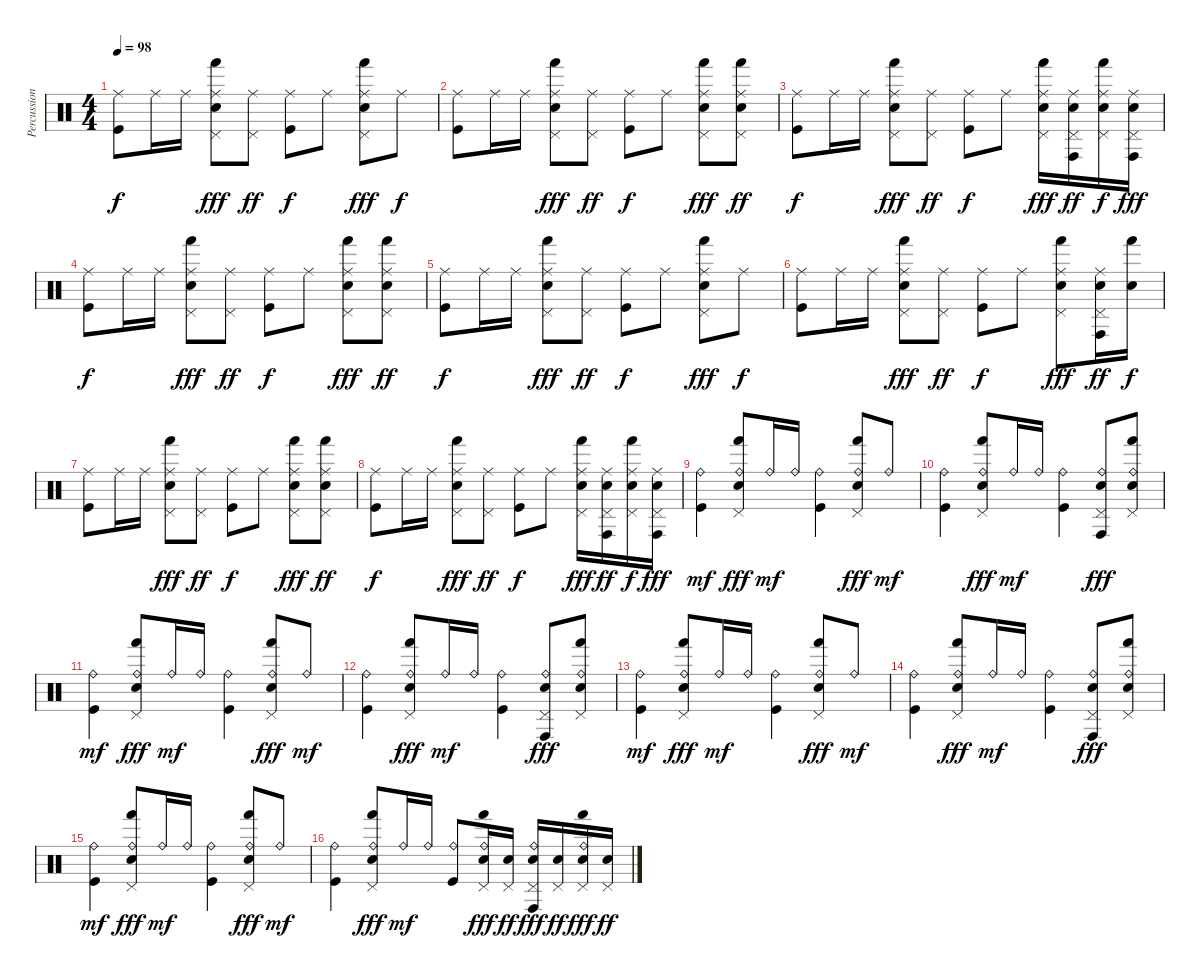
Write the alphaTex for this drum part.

\track ("Percussion" "Percussion") {instrument percussion}
\staff {score}
\articulation defaults
\ts (4 4)
\tempo 98
\clef neutral
\ks c
("Ride (middle)" "Kick (hit)").8{dy f} "Ride (middle)".16 "Ride (middle)".16 ("Ride (middle)" "Pedal Hi-Hat (hit)" "Electric Snare (hit)" "Hand (hit)").8{dy fff} ("Ride (middle)" "Pedal Hi-Hat (hit)").8{dy ff} ("Ride (middle)" "Kick (hit)").8{dy f} "Ride (middle)".8 ("Ride (middle)" "Pedal Hi-Hat (hit)" "Electric Snare (hit)" "Hand (hit)").8{dy fff} "Ride (middle)".8{dy f} |
("Ride (middle)" "Kick (hit)").8 "Ride (middle)".16 "Ride (middle)".16 ("Ride (middle)" "Pedal Hi-Hat (hit)" "Electric Snare (hit)" "Hand (hit)").8{dy fff} ("Ride (middle)" "Pedal Hi-Hat (hit)").8{dy ff} ("Ride (middle)" "Kick (hit)").8{dy f} "Ride (middle)".8 ("Ride (middle)" "Pedal Hi-Hat (hit)" "Electric Snare (hit)" "Hand (hit)").8{dy fff} ("Ride (middle)" "Pedal Hi-Hat (hit)" "Electric Snare (hit)" "Hand (hit)").8{dy ff} |
("Ride (middle)" "Kick (hit)").8{dy f} "Ride (middle)".16 "Ride (middle)".16 ("Ride (middle)" "Pedal Hi-Hat (hit)" "Electric Snare (hit)" "Hand (hit)").8{dy fff} ("Ride (middle)" "Pedal Hi-Hat (hit)").8{dy ff} ("Ride (middle)" "Kick (hit)").8{dy f} "Ride (middle)".8 ("Ride (middle)" "Pedal Hi-Hat (hit)" "Electric Snare (hit)" "Hand (hit)").16{dy fff} ("Ride (middle)" "Pedal Hi-Hat (hit)" "Electric Snare (hit)" "Conga high (hit)").16{dy ff} ("Ride (middle)" "Pedal Hi-Hat (hit)" "Electric Snare (hit)" "Hand (hit)").16{dy f} ("Ride (middle)" "Pedal Hi-Hat (hit)" "Electric Snare (hit)" "Conga high (hit)").16{dy fff} |
("Ride (middle)" "Kick (hit)").8{dy f} "Ride (middle)".16 "Ride (middle)".16 ("Ride (middle)" "Pedal Hi-Hat (hit)" "Electric Snare (hit)" "Hand (hit)").8{dy fff} ("Ride (middle)" "Pedal Hi-Hat (hit)").8{dy ff} ("Ride (middle)" "Kick (hit)").8{dy f} "Ride (middle)".8 ("Ride (middle)" "Pedal Hi-Hat (hit)" "Electric Snare (hit)" "Hand (hit)").8{dy fff} ("Ride (middle)" "Pedal Hi-Hat (hit)" "Electric Snare (hit)" "Hand (hit)").8{dy ff} |
("Ride (middle)" "Kick (hit)").8{dy f} "Ride (middle)".16 "Ride (middle)".16 ("Ride (middle)" "Pedal Hi-Hat (hit)" "Electric Snare (hit)" "Hand (hit)").8{dy fff} ("Ride (middle)" "Pedal Hi-Hat (hit)").8{dy ff} ("Ride (middle)" "Kick (hit)").8{dy f} "Ride (middle)".8 ("Ride (middle)" "Pedal Hi-Hat (hit)" "Electric Snare (hit)" "Hand (hit)").8{dy fff} "Ride (middle)".8{dy f} |
("Ride (middle)" "Kick (hit)").8 "Ride (middle)".16 "Ride (middle)".16 ("Ride (middle)" "Pedal Hi-Hat (hit)" "Electric Snare (hit)" "Hand (hit)").8{dy fff} ("Ride (middle)" "Pedal Hi-Hat (hit)").8{dy ff} ("Ride (middle)" "Kick (hit)").8{dy f} "Ride (middle)".8 ("Ride (middle)" "Pedal Hi-Hat (hit)" "Electric Snare (hit)" "Hand (hit)").8{dy fff} ("Ride (middle)" "Pedal Hi-Hat (hit)" "Electric Snare (hit)" "Conga high (hit)").16{dy ff} ("Electric Snare (hit)" "Hand (hit)").16{dy f} |
("Ride (middle)" "Kick (hit)").8 "Ride (middle)".16 "Ride (middle)".16 ("Ride (middle)" "Pedal Hi-Hat (hit)" "Electric Snare (hit)" "Hand (hit)").8{dy fff} ("Ride (middle)" "Pedal Hi-Hat (hit)").8{dy ff} ("Ride (middle)" "Kick (hit)").8{dy f} "Ride (middle)".8 ("Ride (middle)" "Pedal Hi-Hat (hit)" "Electric Snare (hit)" "Hand (hit)").8{dy fff} ("Ride (middle)" "Pedal Hi-Hat (hit)" "Electric Snare (hit)" "Hand (hit)").8{dy ff} |
("Ride (middle)" "Kick (hit)").8{dy f} "Ride (middle)".16 "Ride (middle)".16 ("Ride (middle)" "Pedal Hi-Hat (hit)" "Electric Snare (hit)" "Hand (hit)").8{dy fff} ("Ride (middle)" "Pedal Hi-Hat (hit)").8{dy ff} ("Ride (middle)" "Kick (hit)").8{dy f} "Ride (middle)".8 ("Ride (middle)" "Pedal Hi-Hat (hit)" "Electric Snare (hit)" "Hand (hit)").16{dy fff} ("Ride (middle)" "Pedal Hi-Hat (hit)" "Electric Snare (hit)" "Conga high (hit)").16{dy ff} ("Ride (middle)" "Pedal Hi-Hat (hit)" "Electric Snare (hit)" "Hand (hit)").16{dy f} ("Ride (middle)" "Pedal Hi-Hat (hit)" "Electric Snare (hit)" "Conga high (hit)").16{dy fff} |
("Ride (bell)" "Kick (hit)").4{dy mf} ("Ride (bell)" "Pedal Hi-Hat (hit)" "Electric Snare (hit)" "Hand (hit)").8{dy fff} "Ride (bell)".16{dy mf} "Ride (bell)".16 ("Ride (bell)" "Kick (hit)").4 ("Ride (bell)" "Pedal Hi-Hat (hit)" "Electric Snare (hit)" "Hand (hit)").8{dy fff} "Ride (bell)".8{dy mf} |
("Ride (bell)" "Kick (hit)").4 ("Ride (bell)" "Pedal Hi-Hat (hit)" "Electric Snare (hit)" "Hand (hit)").8{dy fff} "Ride (bell)".16{dy mf} "Ride (bell)".16 ("Ride (bell)" "Kick (hit)").4 ("Ride (bell)" "Pedal Hi-Hat (hit)" "Electric Snare (hit)" "Conga high (hit)").8{dy fff} ("Ride (bell)" "Pedal Hi-Hat (hit)" "Electric Snare (hit)" "Hand (hit)").8 |
("Ride (bell)" "Kick (hit)").4{dy mf} ("Ride (bell)" "Pedal Hi-Hat (hit)" "Electric Snare (hit)" "Hand (hit)").8{dy fff} "Ride (bell)".16{dy mf} "Ride (bell)".16 ("Ride (bell)" "Kick (hit)").4 ("Ride (bell)" "Pedal Hi-Hat (hit)" "Electric Snare (hit)" "Hand (hit)").8{dy fff} "Ride (bell)".8{dy mf} |
("Ride (bell)" "Kick (hit)").4 ("Ride (bell)" "Pedal Hi-Hat (hit)" "Electric Snare (hit)" "Hand (hit)").8{dy fff} "Ride (bell)".16{dy mf} "Ride (bell)".16 ("Ride (bell)" "Kick (hit)").4 ("Ride (bell)" "Pedal Hi-Hat (hit)" "Electric Snare (hit)" "Conga high (hit)").8{dy fff} ("Ride (bell)" "Pedal Hi-Hat (hit)" "Electric Snare (hit)" "Hand (hit)").8 |
("Ride (bell)" "Kick (hit)").4{dy mf} ("Ride (bell)" "Pedal Hi-Hat (hit)" "Electric Snare (hit)" "Hand (hit)").8{dy fff} "Ride (bell)".16{dy mf} "Ride (bell)".16 ("Ride (bell)" "Kick (hit)").4 ("Ride (bell)" "Pedal Hi-Hat (hit)" "Electric Snare (hit)" "Hand (hit)").8{dy fff} "Ride (bell)".8{dy mf} |
("Ride (bell)" "Kick (hit)").4 ("Ride (bell)" "Pedal Hi-Hat (hit)" "Electric Snare (hit)" "Hand (hit)").8{dy fff} "Ride (bell)".16{dy mf} "Ride (bell)".16 ("Ride (bell)" "Kick (hit)").4 ("Ride (bell)" "Pedal Hi-Hat (hit)" "Electric Snare (hit)" "Conga high (hit)").8{dy fff} ("Ride (bell)" "Pedal Hi-Hat (hit)" "Electric Snare (hit)" "Hand (hit)").8 |
("Ride (bell)" "Kick (hit)").4{dy mf} ("Ride (bell)" "Pedal Hi-Hat (hit)" "Electric Snare (hit)" "Hand (hit)").8{dy fff} "Ride (bell)".16{dy mf} "Ride (bell)".16 ("Ride (bell)" "Kick (hit)").4 ("Ride (bell)" "Pedal Hi-Hat (hit)" "Electric Snare (hit)" "Hand (hit)").8{dy fff} "Ride (bell)".8{dy mf} |
("Ride (bell)" "Kick (hit)").4 ("Ride (bell)" "Pedal Hi-Hat (hit)" "Electric Snare (hit)" "Hand (hit)").8{dy fff} "Ride (bell)".16{dy mf} "Ride (bell)".16 ("Ride (bell)" "Kick (hit)").8 ("Ride (bell)" "Pedal Hi-Hat (hit)" "Electric Snare (hit)" "Hand (hit)").16{dy fff} ("Pedal Hi-Hat (hit)" "Electric Snare (hit)").16{dy ff} ("Ride (bell)" "Pedal Hi-Hat (hit)" "Electric Snare (hit)" "Conga high (hit)").16{dy fff} ("Pedal Hi-Hat (hit)" "Electric Snare (hit)").16{dy ff} ("Ride (bell)" "Pedal Hi-Hat (hit)" "Electric Snare (hit)" "Hand (hit)").16{dy fff} ("Pedal Hi-Hat (hit)" "Electric Snare (hit)").16{dy ff}
